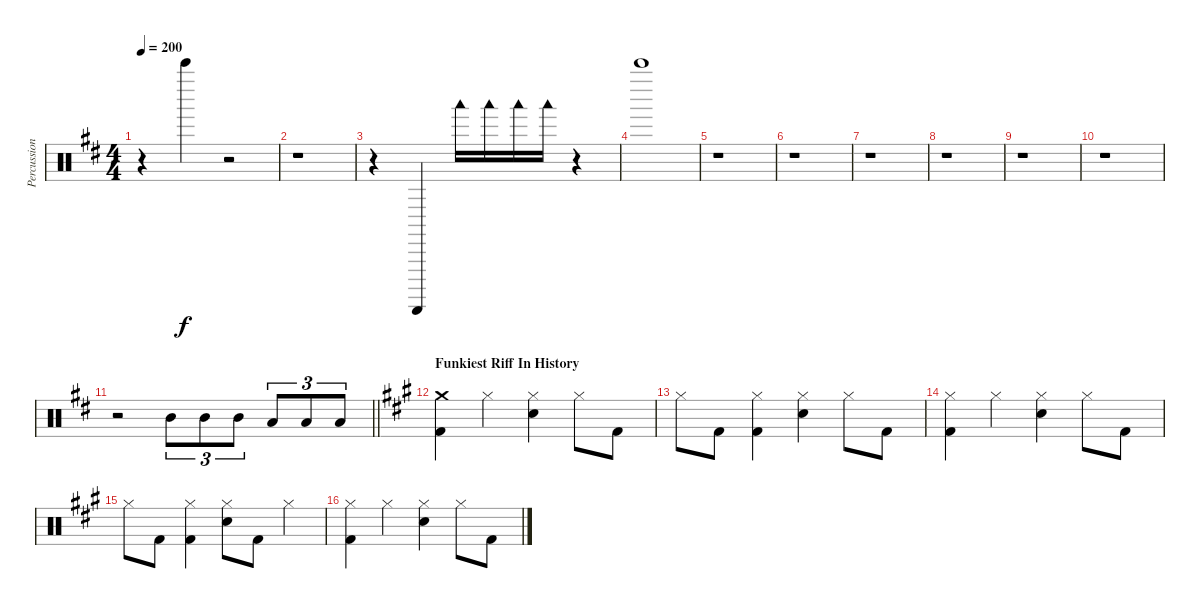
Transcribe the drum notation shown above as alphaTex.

\track ("Percussion" "Percussion") {instrument percussion}
\staff {score}
\articulation defaults
\ts (4 4)
\tempo 200
\clef neutral
\ks bminor
r.4{dy f} "Bell Tree (hit)".4 r.2 |
r.1 |
r.4 "Guiro (scrap-return)".4 "Woodblock low (hit)".16 "Woodblock low (hit)".16 "Woodblock low (hit)".16 "Woodblock low (hit)".16 r.4 |
"Bell Tree (hit)".1 |
r.1 |
r.1 |
r.1 |
r.1 |
r.1 |
r.1 |
\barLineRight lightlight
r.2 "Mid Tom (hit)".8{tu (3 2)} "Mid Tom (hit)".8{tu (3 2)} "Mid Tom (hit)".8{tu (3 2)} "Low Tom (hit)".8{tu (3 2)} "Low Tom (hit)".8{tu (3 2)} "Low Tom (hit)".8{tu (3 2)} |
\section ("" "Funkiest Riff In History")
\ks a
("Crash medium (hit)" "Kick (hit) 2").4 "Hi-Hat (closed)".4 ("Hi-Hat (closed)" "Electric Snare (hit)").4 "Hi-Hat (closed)".8 "Kick (hit) 2".8 |
"Hi-Hat (closed)".8 "Kick (hit) 2".8 ("Hi-Hat (closed)" "Kick (hit) 2").4 ("Hi-Hat (closed)" "Electric Snare (hit)").4 "Hi-Hat (closed)".8 "Kick (hit) 2".8 |
("Hi-Hat (closed)" "Kick (hit) 2").4 "Hi-Hat (closed)".4 ("Hi-Hat (closed)" "Electric Snare (hit)").4 "Hi-Hat (closed)".8 "Kick (hit) 2".8 |
"Hi-Hat (closed)".8 "Kick (hit) 2".8 ("Hi-Hat (closed)" "Kick (hit) 2").4 ("Hi-Hat (closed)" "Electric Snare (hit)").8 "Kick (hit) 2".8 "Hi-Hat (closed)".4 |
("Hi-Hat (closed)" "Kick (hit) 2").4 "Hi-Hat (closed)".4 ("Hi-Hat (closed)" "Electric Snare (hit)").4 "Hi-Hat (closed)".8 "Kick (hit) 2".8
